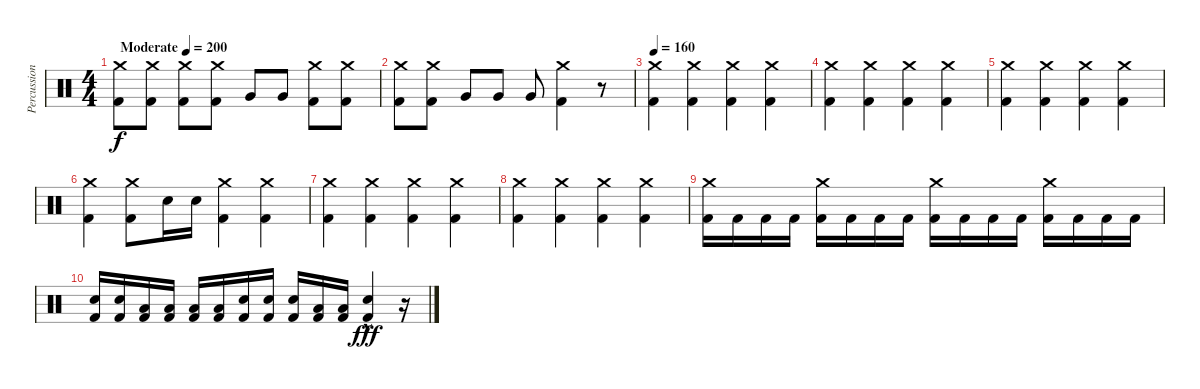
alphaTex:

\track ("Percussion" "Percussion") {instrument percussion}
\staff {score}
\articulation defaults
\ts (4 4)
\tempo (200 "Moderate")
\clef neutral
\ks c
("Crash medium (hit)" "Kick (hit) 2").8{dy f} ("Crash medium (hit)" "Kick (hit) 2").8 ("Crash medium (hit)" "Kick (hit) 2").8 ("Crash medium (hit)" "Kick (hit) 2").8 "Very Low Tom (hit)".8 "Very Low Tom (hit)".8 ("Crash medium (hit)" "Kick (hit) 2").8 ("Crash medium (hit)" "Kick (hit) 2").8 |
("Crash medium (hit)" "Kick (hit) 2").8 ("Crash medium (hit)" "Kick (hit) 2").8 "Very Low Tom (hit)".8 "Very Low Tom (hit)".8 "Very Low Tom (hit)".8 ("Crash medium (hit)" "Kick (hit) 2").4 r.8{volume 0} |
\tempo 160
("Crash medium (hit)" "Kick (hit) 2").4{volume 15} ("Crash medium (hit)" "Kick (hit) 2").4 ("Crash medium (hit)" "Kick (hit) 2").4 ("Crash medium (hit)" "Kick (hit) 2").4 |
("Crash medium (hit)" "Kick (hit) 2").4 ("Crash medium (hit)" "Kick (hit) 2").4 ("Crash medium (hit)" "Kick (hit) 2").4 ("Crash medium (hit)" "Kick (hit) 2").4 |
("Crash medium (hit)" "Kick (hit) 2").4 ("Crash medium (hit)" "Kick (hit) 2").4 ("Crash medium (hit)" "Kick (hit) 2").4 ("Crash medium (hit)" "Kick (hit) 2").4 |
("Crash medium (hit)" "Kick (hit) 2").4 ("Crash medium (hit)" "Kick (hit) 2").8 "Snare (hit) 2".16 "Snare (hit) 2".16 ("Crash medium (hit)" "Kick (hit) 2").4 ("Crash medium (hit)" "Kick (hit) 2").4 |
("Crash medium (hit)" "Kick (hit) 2").4 ("Crash medium (hit)" "Kick (hit) 2").4 ("Crash medium (hit)" "Kick (hit) 2").4 ("Crash medium (hit)" "Kick (hit) 2").4 |
("Crash medium (hit)" "Kick (hit) 2").4 ("Crash medium (hit)" "Kick (hit) 2").4 ("Crash medium (hit)" "Kick (hit) 2").4 ("Crash medium (hit)" "Kick (hit) 2").4 |
("Crash medium (hit)" "Kick (hit) 2").16 "Kick (hit) 2".16 "Kick (hit) 2".16 "Kick (hit) 2".16 ("Crash medium (hit)" "Kick (hit) 2").16 "Kick (hit) 2".16 "Kick (hit) 2".16 "Kick (hit) 2".16 ("Crash medium (hit)" "Kick (hit) 2").16 "Kick (hit) 2".16 "Kick (hit) 2".16 "Kick (hit) 2".16 ("Crash medium (hit)" "Kick (hit) 2").16 "Kick (hit) 2".16 "Kick (hit) 2".16 "Kick (hit) 2".16 |
("Snare (hit) 2" "Kick (hit) 2").16 ("Snare (hit) 2" "Kick (hit) 2").16 ("Low Tom (hit)" "Kick (hit) 2").16 ("Low Tom (hit)" "Kick (hit) 2").16 ("Low Tom (hit)" "Kick (hit) 2").16 ("Low Tom (hit)" "Kick (hit) 2").16 ("Snare (hit) 2" "Kick (hit) 2").16 ("Snare (hit) 2" "Kick (hit) 2").16 ("Snare (hit) 2" "Kick (hit) 2").16 ("Low Tom (hit)" "Kick (hit) 2").16 ("Low Tom (hit)" "Kick (hit) 2").16 ("Snare (hit) 2"{hac} "Kick (hit) 2").4{dy fff} r.16
